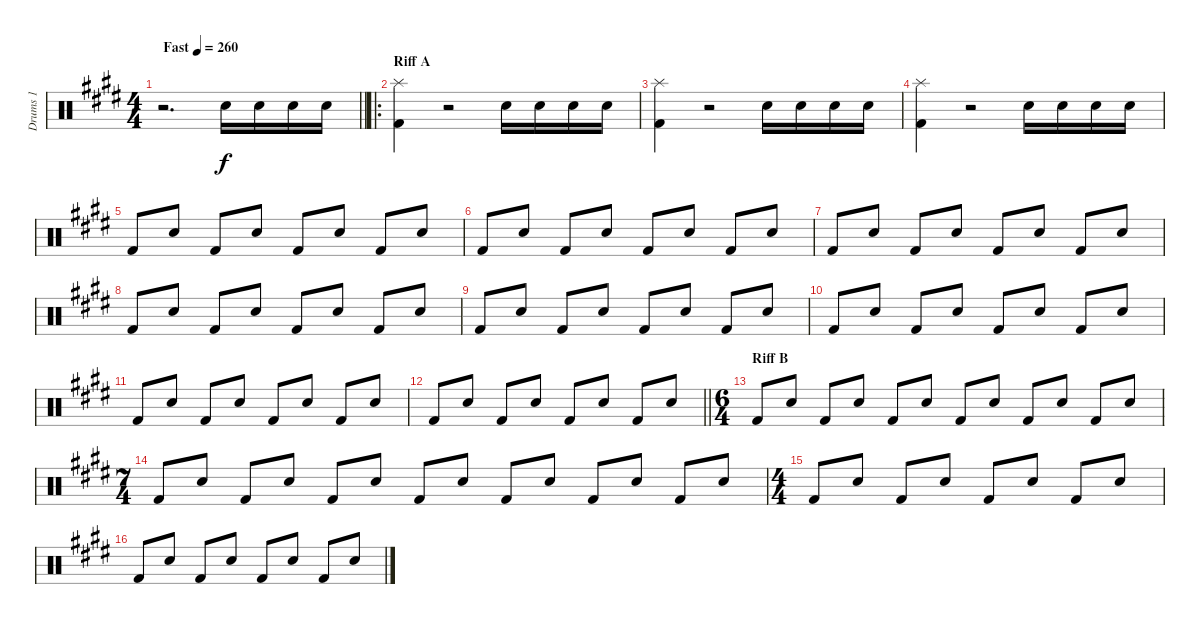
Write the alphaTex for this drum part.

\track ("Drums 1" "Drums 1") {instrument percussion}
\staff {score}
\articulation defaults
\ts (4 4)
\tempo (260 "Fast")
\clef neutral
\barLineRight lightlight
\ks c#minor
r.2{d dy f} "Snare (hit) 2".16 "Snare (hit) 2".16 "Snare (hit) 2".16 "Snare (hit) 2".16 |
\ro
\section ("" "Riff A")
("Splash (hit)" "Kick (hit) 2").4 r.2 "Electric Snare (hit)".16 "Electric Snare (hit)".16 "Electric Snare (hit)".16 "Electric Snare (hit)".16 |
("Splash (hit)" "Kick (hit) 2").4 r.2 "Electric Snare (hit)".16 "Electric Snare (hit)".16 "Electric Snare (hit)".16 "Electric Snare (hit)".16 |
("Splash (hit)" "Kick (hit) 2").4 r.2 "Electric Snare (hit)".16 "Electric Snare (hit)".16 "Electric Snare (hit)".16 "Electric Snare (hit)".16 |
"Kick (hit) 2".8 "Electric Snare (hit)".8 "Kick (hit) 2".8 "Electric Snare (hit)".8 "Kick (hit) 2".8 "Electric Snare (hit)".8 "Kick (hit) 2".8 "Electric Snare (hit)".8 |
"Kick (hit) 2".8 "Electric Snare (hit)".8 "Kick (hit) 2".8 "Electric Snare (hit)".8 "Kick (hit) 2".8 "Electric Snare (hit)".8 "Kick (hit) 2".8 "Electric Snare (hit)".8 |
"Kick (hit) 2".8 "Electric Snare (hit)".8 "Kick (hit) 2".8 "Electric Snare (hit)".8 "Kick (hit) 2".8 "Electric Snare (hit)".8 "Kick (hit) 2".8 "Electric Snare (hit)".8 |
"Kick (hit) 2".8 "Electric Snare (hit)".8 "Kick (hit) 2".8 "Electric Snare (hit)".8 "Kick (hit) 2".8 "Electric Snare (hit)".8 "Kick (hit) 2".8 "Electric Snare (hit)".8 |
"Kick (hit) 2".8 "Electric Snare (hit)".8 "Kick (hit) 2".8 "Electric Snare (hit)".8 "Kick (hit) 2".8 "Electric Snare (hit)".8 "Kick (hit) 2".8 "Electric Snare (hit)".8 |
"Kick (hit) 2".8 "Electric Snare (hit)".8 "Kick (hit) 2".8 "Electric Snare (hit)".8 "Kick (hit) 2".8 "Electric Snare (hit)".8 "Kick (hit) 2".8 "Electric Snare (hit)".8 |
"Kick (hit) 2".8 "Electric Snare (hit)".8 "Kick (hit) 2".8 "Electric Snare (hit)".8 "Kick (hit) 2".8 "Electric Snare (hit)".8 "Kick (hit) 2".8 "Electric Snare (hit)".8 |
\barLineRight lightlight "Kick (hit) 2".8 "Electric Snare (hit)".8 "Kick (hit) 2".8 "Electric Snare (hit)".8 "Kick (hit) 2".8 "Electric Snare (hit)".8 "Kick (hit) 2".8 "Electric Snare (hit)".8
|
\ts (6 4)
\section ("" "Riff B")
"Kick (hit) 2".8 "Electric Snare (hit)".8 "Kick (hit) 2".8 "Electric Snare (hit)".8 "Kick (hit) 2".8 "Electric Snare (hit)".8 "Kick (hit) 2".8 "Electric Snare (hit)".8 "Kick (hit) 2".8 "Electric Snare (hit)".8 "Kick (hit) 2".8 "Electric Snare (hit)".8 |
\ts (7 4)
"Kick (hit) 2".8 "Electric Snare (hit)".8 "Kick (hit) 2".8 "Electric Snare (hit)".8 "Kick (hit) 2".8 "Electric Snare (hit)".8 "Kick (hit) 2".8 "Electric Snare (hit)".8 "Kick (hit) 2".8 "Electric Snare (hit)".8 "Kick (hit) 2".8 "Electric Snare (hit)".8 "Kick (hit) 2".8 "Electric Snare (hit)".8 |
\ts (4 4)
"Kick (hit) 2".8 "Electric Snare (hit)".8 "Kick (hit) 2".8 "Electric Snare (hit)".8 "Kick (hit) 2".8 "Electric Snare (hit)".8 "Kick (hit) 2".8 "Electric Snare (hit)".8 |
"Kick (hit) 2".8 "Electric Snare (hit)".8 "Kick (hit) 2".8 "Electric Snare (hit)".8 "Kick (hit) 2".8 "Electric Snare (hit)".8 "Kick (hit) 2".8 "Electric Snare (hit)".8
